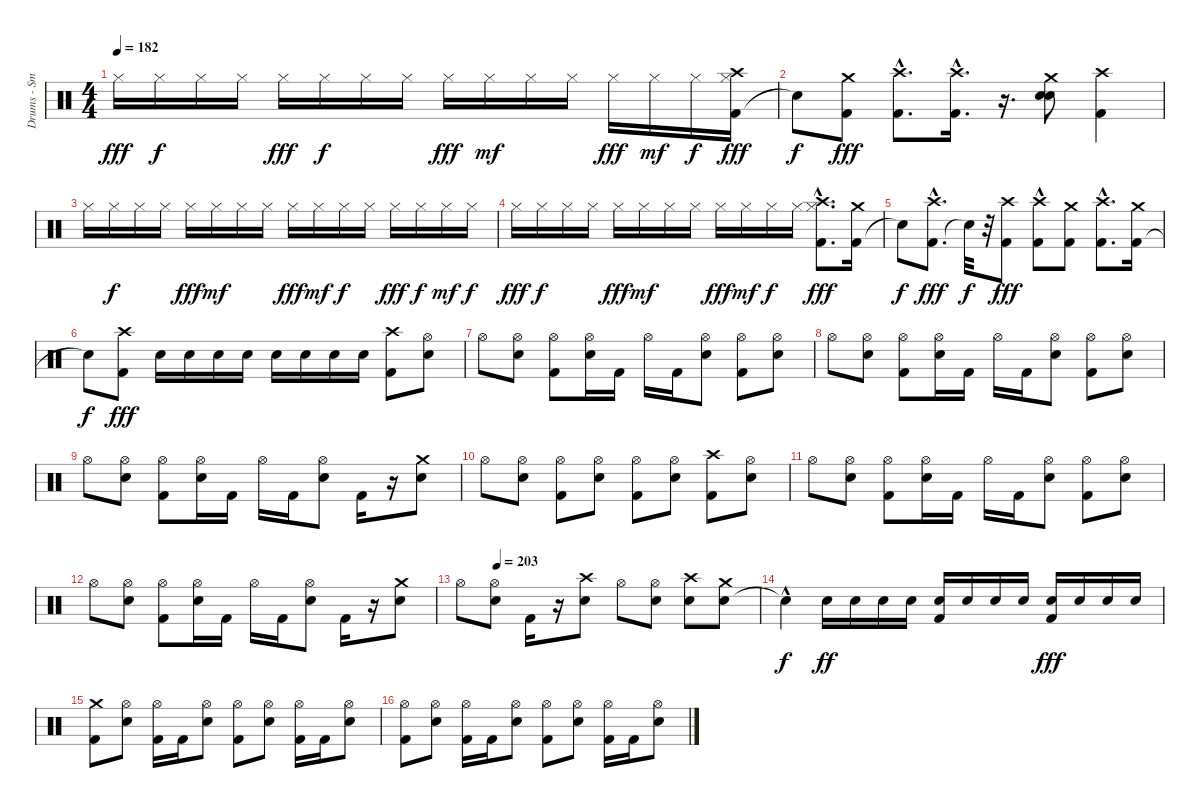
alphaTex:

\track ("Drums - Smelly" "Drums - Sm") {instrument percussion}
\staff {score}
\articulation defaults
\ts (4 4)
\tempo 182
\clef neutral
\ks c "Hi-Hat (closed)".16{dy fff} "Hi-Hat (closed)".16{dy f} "Hi-Hat (closed)".16 "Hi-Hat (closed)".16 "Hi-Hat (closed)".16{dy fff} "Hi-Hat (closed)".16{dy f} "Hi-Hat (closed)".16 "Hi-Hat (closed)".16 "Hi-Hat (closed)".16{dy fff} "Hi-Hat (closed)".16{dy mf} "Hi-Hat (closed)".16 "Hi-Hat (closed)".16 "Hi-Hat (closed)".16{dy fff} "Hi-Hat (closed)".16{dy mf} "Hi-Hat (closed)".16{dy f}
("Kick (hit) 2" "Crash high (hit)" "Hi-Hat (closed)").16{dy fff} |
"Snare (hit)"{t}.8{dy f} ("Kick (hit) 2" "Crash medium (hit)").8{dy fff} ("Kick (hit) 2" "Crash high (hit)"{hac}).8{d} ("Kick (hit) 2" "Crash high (hit)"{hac}).16{d} r.16{d} ("Electric Snare (hit)" "Crash medium (hit)" "Electric Snare (hit)").8 ("Crash high (hit)" "Kick (hit) 2").4 |
"Hi-Hat (closed)".16 "Hi-Hat (closed)".16{dy f} "Hi-Hat (closed)".16 "Hi-Hat (closed)".16 "Hi-Hat (closed)".16{dy fff} "Hi-Hat (closed)".16{dy mf} "Hi-Hat (closed)".16 "Hi-Hat (closed)".16 "Hi-Hat (closed)".16{dy fff} "Hi-Hat (closed)".16{dy mf} "Hi-Hat (closed)".16{dy f} "Hi-Hat (closed)".16 "Hi-Hat (closed)".16{dy fff} "Hi-Hat (closed)".16{dy f} "Hi-Hat (closed)".16{dy mf} "Hi-Hat (closed)".16{dy f} |
"Hi-Hat (closed)".16{dy fff} "Hi-Hat (closed)".16{dy f} "Hi-Hat (closed)".16 "Hi-Hat (closed)".16 "Hi-Hat (closed)".16{dy fff} "Hi-Hat (closed)".16{dy mf} "Hi-Hat (closed)".16 "Hi-Hat (closed)".16 "Hi-Hat (closed)".16{dy fff} "Hi-Hat (closed)".16{dy mf} "Hi-Hat (closed)".16{dy f} "Hi-Hat (closed)".16 ("Kick (hit) 2" "Crash high (hit)"{hac} "Hi-Hat (closed)").8{d dy fff} ("Kick (hit) 2" "Crash medium (hit)").16 |
"Snare (hit)"{t}.8{dy f} ("Kick (hit) 2" "Crash high (hit)"{hac}).8{d dy fff} "Snare (hit)"{t}.32{dy f} r.32 ("Kick (hit) 2" "Crash high (hit)").8{dy fff} ("Kick (hit) 2" "Crash high (hit)"{hac}).8 ("Kick (hit) 2" "Crash medium (hit)").8 ("Kick (hit) 2" "Crash high (hit)"{hac}).8{d} ("Kick (hit) 2" "Crash medium (hit)").16 |
"Snare (hit)"{t}.8{dy f} ("Kick (hit) 2" "Crash high (hit)").8{dy fff} "Electric Snare (hit)".16 "Electric Snare (hit)".16 "Electric Snare (hit)".16 "Electric Snare (hit)".16 "Electric Snare (hit)".16 "Electric Snare (hit)".16 "Electric Snare (hit)".16 "Electric Snare (hit)".16 ("Kick (hit) 2" "Crash high (hit)").8 ("Electric Snare (hit)" "Hi-Hat (open)").8 |
"Hi-Hat (open)".8 ("Electric Snare (hit)" "Hi-Hat (open)").8 ("Kick (hit) 2" "Hi-Hat (open)").8 ("Electric Snare (hit)" "Hi-Hat (open)").16 "Kick (hit) 2".16 "Hi-Hat (open)".16 "Kick (hit) 2".16 ("Electric Snare (hit)" "Hi-Hat (open)").8 ("Kick (hit) 2" "Hi-Hat (open)").8 ("Electric Snare (hit)" "Hi-Hat (open)").8 |
"Hi-Hat (open)".8 ("Electric Snare (hit)" "Hi-Hat (open)").8 ("Kick (hit) 2" "Hi-Hat (open)").8 ("Electric Snare (hit)" "Hi-Hat (open)").16 "Kick (hit) 2".16 "Hi-Hat (open)".16 "Kick (hit) 2".16 ("Electric Snare (hit)" "Hi-Hat (open)").8 ("Kick (hit) 2" "Hi-Hat (open)").8 ("Electric Snare (hit)" "Hi-Hat (open)").8 |
"Hi-Hat (open)".8 ("Electric Snare (hit)" "Hi-Hat (open)").8 ("Kick (hit) 2" "Hi-Hat (open)").8 ("Electric Snare (hit)" "Hi-Hat (open)").16 "Kick (hit) 2".16 "Hi-Hat (open)".16 "Kick (hit) 2".16 ("Electric Snare (hit)" "Hi-Hat (open)").8 "Kick (hit) 2".16 r.16 ("Electric Snare (hit)" "Crash medium (hit)").8 |
"Hi-Hat (open)".8 ("Electric Snare (hit)" "Hi-Hat (open)").8 ("Kick (hit) 2" "Hi-Hat (open)").8 ("Electric Snare (hit)" "Hi-Hat (open)").8 ("Kick (hit) 2" "Hi-Hat (open)").8 ("Electric Snare (hit)" "Hi-Hat (open)").8 ("Kick (hit) 2" "Crash high (hit)").8 ("Electric Snare (hit)" "Hi-Hat (open)").8 |
"Hi-Hat (open)".8 ("Electric Snare (hit)" "Hi-Hat (open)").8 ("Kick (hit) 2" "Hi-Hat (open)").8 ("Electric Snare (hit)" "Hi-Hat (open)").16 "Kick (hit) 2".16 "Hi-Hat (open)".16 "Kick (hit) 2".16 ("Electric Snare (hit)" "Hi-Hat (open)").8 ("Hi-Hat (open)" "Kick (hit) 2").8 ("Electric Snare (hit)" "Hi-Hat (open)").8 |
"Hi-Hat (open)".8 ("Electric Snare (hit)" "Hi-Hat (open)").8 ("Kick (hit) 2" "Hi-Hat (open)").8 ("Electric Snare (hit)" "Hi-Hat (open)").16 "Kick (hit) 2".16 "Hi-Hat (open)".16 "Kick (hit) 2".16 ("Electric Snare (hit)" "Hi-Hat (open)").8 "Kick (hit) 2".16 r.16 ("Electric Snare (hit)" "Crash medium (hit)").8 |
\tempo (203 0.125)
"Hi-Hat (open)".8 ("Electric Snare (hit)" "Hi-Hat (open)").8 "Kick (hit) 2".16 r.16 ("Electric Snare (hit)" "Crash high (hit)").8 "Hi-Hat (open)".8 ("Electric Snare (hit)" "Hi-Hat (open)").8 ("Electric Snare (hit)" "Crash high (hit)").8 ("Electric Snare (hit)" "Crash medium (hit)").8 |
"Snare (hit)"{hac t}.4{dy f} "Electric Snare (hit)".16{dy ff} "Electric Snare (hit)".16 "Electric Snare (hit)".16 "Electric Snare (hit)".16 ("Electric Snare (hit)" "Kick (hit) 2").16 "Electric Snare (hit)".16 "Electric Snare (hit)".16 "Electric Snare (hit)".16 ("Electric Snare (hit)" "Kick (hit) 2").16{dy fff} "Electric Snare (hit)".16 "Electric Snare (hit)".16 "Electric Snare (hit)".16 |
("Kick (hit) 2" "Crash medium (hit)").8 ("Electric Snare (hit)" "Hi-Hat (open)").8 ("Kick (hit) 2" "Hi-Hat (open)").16 "Kick (hit) 2".16 ("Electric Snare (hit)" "Hi-Hat (open)").8 ("Kick (hit) 2" "Hi-Hat (open)").8 ("Electric Snare (hit)" "Hi-Hat (open)").8 ("Kick (hit) 2" "Hi-Hat (open)").16 "Kick (hit) 2".16 ("Electric Snare (hit)" "Hi-Hat (open)").8 |
("Kick (hit) 2" "Hi-Hat (open)").8 ("Electric Snare (hit)" "Hi-Hat (open)").8 ("Kick (hit) 2" "Hi-Hat (open)").16 "Kick (hit) 2".16 ("Electric Snare (hit)" "Hi-Hat (open)").8 ("Kick (hit) 2" "Hi-Hat (open)").8 ("Electric Snare (hit)" "Hi-Hat (open)").8 ("Kick (hit) 2" "Hi-Hat (open)").16 "Kick (hit) 2".16 ("Electric Snare (hit)" "Hi-Hat (open)").8
